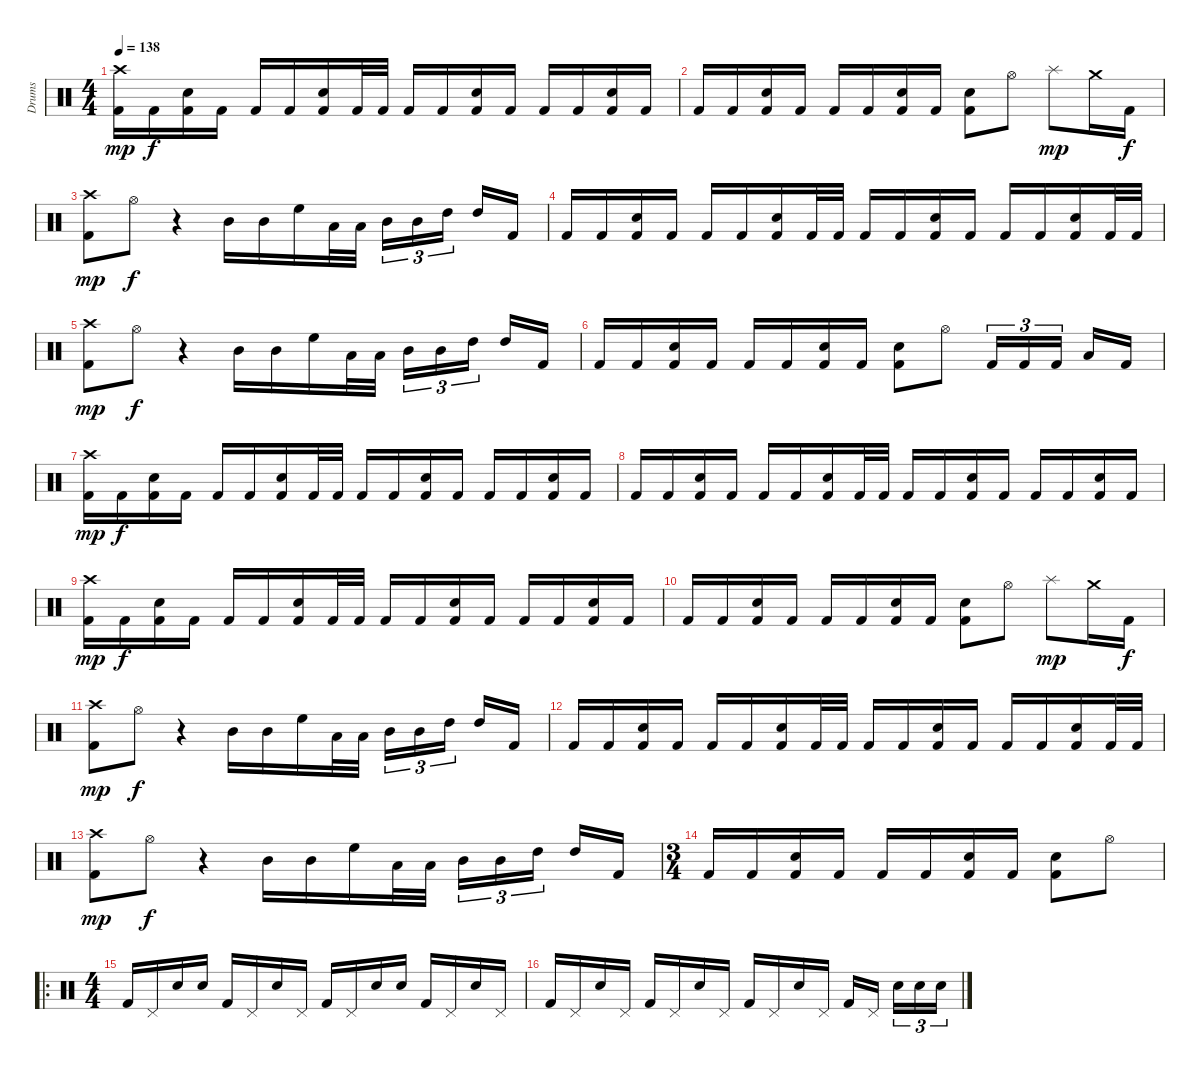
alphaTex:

\track ("Drums" "Drums") {instrument percussion}
\staff {score}
\articulation defaults
\ts (4 4)
\tempo 138
\clef neutral
\ks c
("Kick (hit) 2" "Crash high (hit)").16{dy mp} "Kick (hit) 2".16{dy f} ("Kick (hit) 2" "Electric Snare (hit)").16 "Kick (hit) 2".16 "Kick (hit) 2".16 "Kick (hit) 2".16 ("Kick (hit) 2" "Electric Snare (hit)").16 "Kick (hit) 2".32 "Kick (hit) 2".32 "Kick (hit) 2".16 "Kick (hit) 2".16 ("Kick (hit) 2" "Electric Snare (hit)").16 "Kick (hit) 2".16 "Kick (hit) 2".16 "Kick (hit) 2".16 ("Kick (hit) 2" "Electric Snare (hit)").16 "Kick (hit) 2".16 |
"Kick (hit) 2".16 "Kick (hit) 2".16 ("Kick (hit) 2" "Electric Snare (hit)").16 "Kick (hit) 2".16 "Kick (hit) 2".16 "Kick (hit) 2".16 ("Kick (hit) 2" "Electric Snare (hit)").16 "Kick (hit) 2".16 ("Kick (hit) 2" "Electric Snare (hit)").8 "Hi-Hat (open)".8 "Splash (hit)".8{dy mp} "Crash medium (hit)".16 "Kick (hit) 2".16{dy f} |
("Kick (hit) 2" "Crash high (hit)").8{dy mp} "Hi-Hat (open)".8{dy f} r.4 "Mid Tom (hit)".16 "Mid Tom (hit)".16 "High Floor Tom (hit)".16 "Low Tom (hit)".32 "Low Tom (hit)".32 "Mid Tom (hit)".16{tu (3 2)} "Mid Tom (hit)".16{tu (3 2)} "High Tom (hit)".16{tu (3 2)} "High Tom (hit)".16 "Kick (hit) 2".16 |
"Kick (hit) 2".16 "Kick (hit) 2".16 ("Kick (hit) 2" "Electric Snare (hit)").16 "Kick (hit) 2".16 "Kick (hit) 2".16 "Kick (hit) 2".16 ("Kick (hit) 2" "Electric Snare (hit)").16 "Kick (hit) 2".32 "Kick (hit) 2".32 "Kick (hit) 2".16 "Kick (hit) 2".16 ("Kick (hit) 2" "Electric Snare (hit)").16 "Kick (hit) 2".16 "Kick (hit) 2".16 "Kick (hit) 2".16 ("Kick (hit) 2" "Electric Snare (hit)").16 "Kick (hit) 2".32 "Kick (hit) 2".32 |
("Kick (hit) 2" "Crash high (hit)").8{dy mp} "Hi-Hat (open)".8{dy f} r.4 "Mid Tom (hit)".16 "Mid Tom (hit)".16 "High Floor Tom (hit)".16 "Low Tom (hit)".32 "Low Tom (hit)".32 "Mid Tom (hit)".16{tu (3 2)} "Mid Tom (hit)".16{tu (3 2)} "High Tom (hit)".16{tu (3 2)} "High Tom (hit)".16 "Kick (hit) 2".16 |
"Kick (hit) 2".16 "Kick (hit) 2".16 ("Kick (hit) 2" "Electric Snare (hit)").16 "Kick (hit) 2".16 "Kick (hit) 2".16 "Kick (hit) 2".16 ("Kick (hit) 2" "Electric Snare (hit)").16 "Kick (hit) 2".16 ("Kick (hit) 2" "Electric Snare (hit)").8 "Hi-Hat (open)".8 "Kick (hit) 2".16{tu (3 2)} "Kick (hit) 2".16{tu (3 2)} "Kick (hit) 2".16{tu (3 2)} "Low Tom (hit)".16 "Kick (hit) 2".16 |
("Kick (hit) 2" "Crash high (hit)").16{dy mp} "Kick (hit) 2".16{dy f} ("Kick (hit) 2" "Electric Snare (hit)").16 "Kick (hit) 2".16 "Kick (hit) 2".16 "Kick (hit) 2".16 ("Kick (hit) 2" "Electric Snare (hit)").16 "Kick (hit) 2".32 "Kick (hit) 2".32 "Kick (hit) 2".16 "Kick (hit) 2".16 ("Kick (hit) 2" "Electric Snare (hit)").16 "Kick (hit) 2".16 "Kick (hit) 2".16 "Kick (hit) 2".16 ("Kick (hit) 2" "Electric Snare (hit)").16 "Kick (hit) 2".16 |
"Kick (hit) 2".16 "Kick (hit) 2".16 ("Kick (hit) 2" "Electric Snare (hit)").16 "Kick (hit) 2".16 "Kick (hit) 2".16 "Kick (hit) 2".16 ("Kick (hit) 2" "Electric Snare (hit)").16 "Kick (hit) 2".32 "Kick (hit) 2".32 "Kick (hit) 2".16 "Kick (hit) 2".16 ("Kick (hit) 2" "Electric Snare (hit)").16 "Kick (hit) 2".16 "Kick (hit) 2".16 "Kick (hit) 2".16 ("Kick (hit) 2" "Electric Snare (hit)").16 "Kick (hit) 2".16 |
("Kick (hit) 2" "Crash high (hit)").16{dy mp} "Kick (hit) 2".16{dy f} ("Kick (hit) 2" "Electric Snare (hit)").16 "Kick (hit) 2".16 "Kick (hit) 2".16 "Kick (hit) 2".16 ("Kick (hit) 2" "Electric Snare (hit)").16 "Kick (hit) 2".32 "Kick (hit) 2".32 "Kick (hit) 2".16 "Kick (hit) 2".16 ("Kick (hit) 2" "Electric Snare (hit)").16 "Kick (hit) 2".16 "Kick (hit) 2".16 "Kick (hit) 2".16 ("Kick (hit) 2" "Electric Snare (hit)").16 "Kick (hit) 2".16 |
"Kick (hit) 2".16 "Kick (hit) 2".16 ("Kick (hit) 2" "Electric Snare (hit)").16 "Kick (hit) 2".16 "Kick (hit) 2".16 "Kick (hit) 2".16 ("Kick (hit) 2" "Electric Snare (hit)").16 "Kick (hit) 2".16 ("Kick (hit) 2" "Electric Snare (hit)").8 "Hi-Hat (open)".8 "Splash (hit)".8{dy mp} "Crash medium (hit)".16 "Kick (hit) 2".16{dy f} |
("Kick (hit) 2" "Crash high (hit)").8{dy mp} "Hi-Hat (open)".8{dy f} r.4 "Mid Tom (hit)".16 "Mid Tom (hit)".16 "High Floor Tom (hit)".16 "Low Tom (hit)".32 "Low Tom (hit)".32 "Mid Tom (hit)".16{tu (3 2)} "Mid Tom (hit)".16{tu (3 2)} "High Tom (hit)".16{tu (3 2)} "High Tom (hit)".16 "Kick (hit) 2".16 |
"Kick (hit) 2".16 "Kick (hit) 2".16 ("Kick (hit) 2" "Electric Snare (hit)").16 "Kick (hit) 2".16 "Kick (hit) 2".16 "Kick (hit) 2".16 ("Kick (hit) 2" "Electric Snare (hit)").16 "Kick (hit) 2".32 "Kick (hit) 2".32 "Kick (hit) 2".16 "Kick (hit) 2".16 ("Kick (hit) 2" "Electric Snare (hit)").16 "Kick (hit) 2".16 "Kick (hit) 2".16 "Kick (hit) 2".16 ("Kick (hit) 2" "Electric Snare (hit)").16 "Kick (hit) 2".32 "Kick (hit) 2".32 |
("Kick (hit) 2" "Crash high (hit)").8{dy mp} "Hi-Hat (open)".8{dy f} r.4 "Mid Tom (hit)".16 "Mid Tom (hit)".16 "High Floor Tom (hit)".16 "Low Tom (hit)".32 "Low Tom (hit)".32 "Mid Tom (hit)".16{tu (3 2)} "Mid Tom (hit)".16{tu (3 2)} "High Tom (hit)".16{tu (3 2)} "High Tom (hit)".16 "Kick (hit) 2".16 |
\ts (3 4)
"Kick (hit) 2".16 "Kick (hit) 2".16 ("Kick (hit) 2" "Electric Snare (hit)").16 "Kick (hit) 2".16 "Kick (hit) 2".16 "Kick (hit) 2".16 ("Kick (hit) 2" "Electric Snare (hit)").16 "Kick (hit) 2".16 ("Kick (hit) 2" "Electric Snare (hit)").8 "Hi-Hat (open)".8 |
\ro
\ts (4 4)
"Kick (hit) 2".16 "Pedal Hi-Hat (hit)".16 "Electric Snare (hit)".16 "Electric Snare (hit)".16 "Kick (hit) 2".16 "Pedal Hi-Hat (hit)".16 "Electric Snare (hit)".16 "Pedal Hi-Hat (hit)".16 "Kick (hit) 2".16 "Pedal Hi-Hat (hit)".16 "Electric Snare (hit)".16 "Electric Snare (hit)".16 "Kick (hit) 2".16 "Pedal Hi-Hat (hit)".16 "Electric Snare (hit)".16 "Pedal Hi-Hat (hit)".16 |
"Kick (hit) 2".16 "Pedal Hi-Hat (hit)".16 "Electric Snare (hit)".16 "Pedal Hi-Hat (hit)".16 "Kick (hit) 2".16 "Pedal Hi-Hat (hit)".16 "Electric Snare (hit)".16 "Pedal Hi-Hat (hit)".16 "Kick (hit) 2".16 "Pedal Hi-Hat (hit)".16 "Electric Snare (hit)".16 "Pedal Hi-Hat (hit)".16 "Kick (hit) 2".16 "Pedal Hi-Hat (hit)".16 "Electric Snare (hit)".16{tu (3 2)} "Electric Snare (hit)".16{tu (3 2)} "Electric Snare (hit)".16{tu (3 2)}
